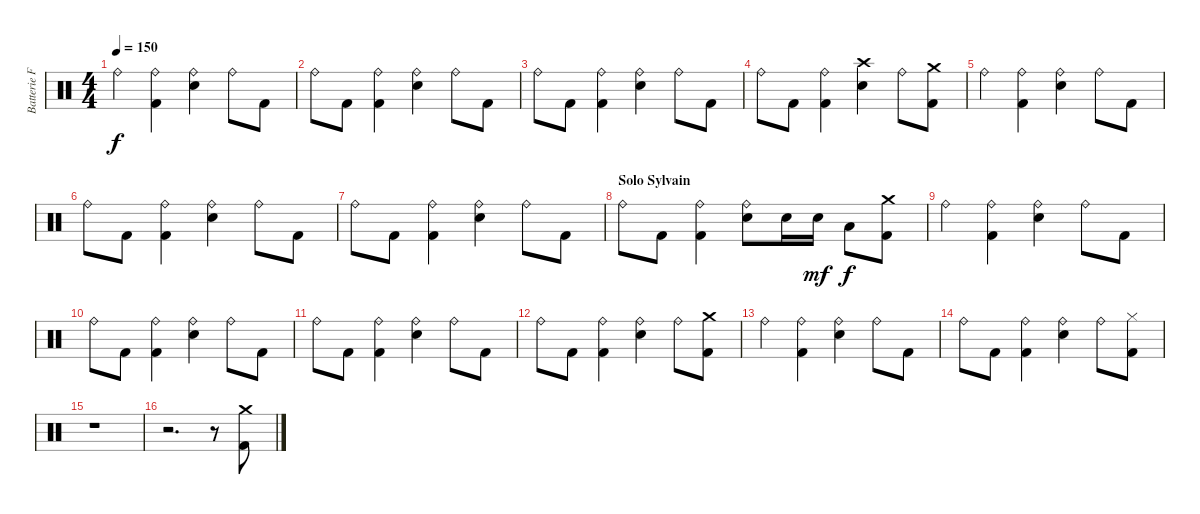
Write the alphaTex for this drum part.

\track ("Batterie Franck" "Batterie F") {instrument percussion}
\staff {score}
\articulation defaults
\ts (4 4)
\tempo 150
\clef neutral
\ks c "Ride (bell)".4{dy f}
("Ride (bell)" "Kick (hit) 2").4 ("Ride (bell)" "Snare (hit) 2").4 "Ride (bell)".8 "Kick (hit) 2".8 |
"Ride (bell)".8 "Kick (hit) 2".8 ("Ride (bell)" "Kick (hit) 2").4 ("Ride (bell)" "Snare (hit) 2").4 "Ride (bell)".8 "Kick (hit) 2".8 |
"Ride (bell)".8 "Kick (hit) 2".8 ("Ride (bell)" "Kick (hit) 2").4 ("Ride (bell)" "Snare (hit) 2").4 "Ride (bell)".8 "Kick (hit) 2".8 |
"Ride (bell)".8 "Kick (hit) 2".8 ("Ride (bell)" "Kick (hit) 2").4 ("Crash high (hit)" "Snare (hit) 2").4 "Ride (bell)".8 ("Crash medium (hit)" "Kick (hit) 2").8 |
"Ride (bell)".4 ("Ride (bell)" "Kick (hit) 2").4 ("Ride (bell)" "Snare (hit) 2").4 "Ride (bell)".8 "Kick (hit) 2".8 |
"Ride (bell)".8 "Kick (hit) 2".8 ("Ride (bell)" "Kick (hit) 2").4 ("Ride (bell)" "Snare (hit) 2").4 "Ride (bell)".8 "Kick (hit) 2".8 |
"Ride (bell)".8 "Kick (hit) 2".8 ("Ride (bell)" "Kick (hit) 2").4 ("Ride (bell)" "Snare (hit) 2").4 "Ride (bell)".8 "Kick (hit) 2".8 |
\section ("" "Solo Sylvain")
"Ride (bell)".8 "Kick (hit) 2".8 ("Ride (bell)" "Kick (hit) 2").4 ("Ride (bell)" "Snare (hit) 2").8 "Snare (hit) 2".16 "Snare (hit) 2".16{dy mf} "Low Tom (hit)".8{dy f} ("Crash medium (hit)" "Kick (hit) 2").8 |
"Ride (bell)".4 ("Ride (bell)" "Kick (hit) 2").4 ("Ride (bell)" "Snare (hit) 2").4 "Ride (bell)".8 "Kick (hit) 2".8 |
"Ride (bell)".8 "Kick (hit) 2".8 ("Ride (bell)" "Kick (hit) 2").4 ("Ride (bell)" "Snare (hit) 2").4 "Ride (bell)".8 "Kick (hit) 2".8 |
"Ride (bell)".8 "Kick (hit) 2".8 ("Ride (bell)" "Kick (hit) 2").4 ("Ride (bell)" "Snare (hit) 2").4 "Ride (bell)".8 "Kick (hit) 2".8 |
"Ride (bell)".8 "Kick (hit) 2".8 ("Ride (bell)" "Kick (hit) 2").4 ("Ride (bell)" "Snare (hit) 2").4 "Ride (bell)".8 ("Crash medium (hit)" "Kick (hit) 2").8 |
"Ride (bell)".4 ("Ride (bell)" "Kick (hit) 2").4 ("Ride (bell)" "Snare (hit) 2").4 "Ride (bell)".8 "Kick (hit) 2".8 |
"Ride (bell)".8 "Kick (hit) 2".8 ("Ride (bell)" "Kick (hit) 2").4 ("Ride (bell)" "Snare (hit) 2").4 "Ride (bell)".8 ("Hi-Hat (closed)" "Kick (hit) 2").8 |
r.1 |
r.2{d} r.8 ("Crash medium (hit)" "Kick (hit) 2").8
